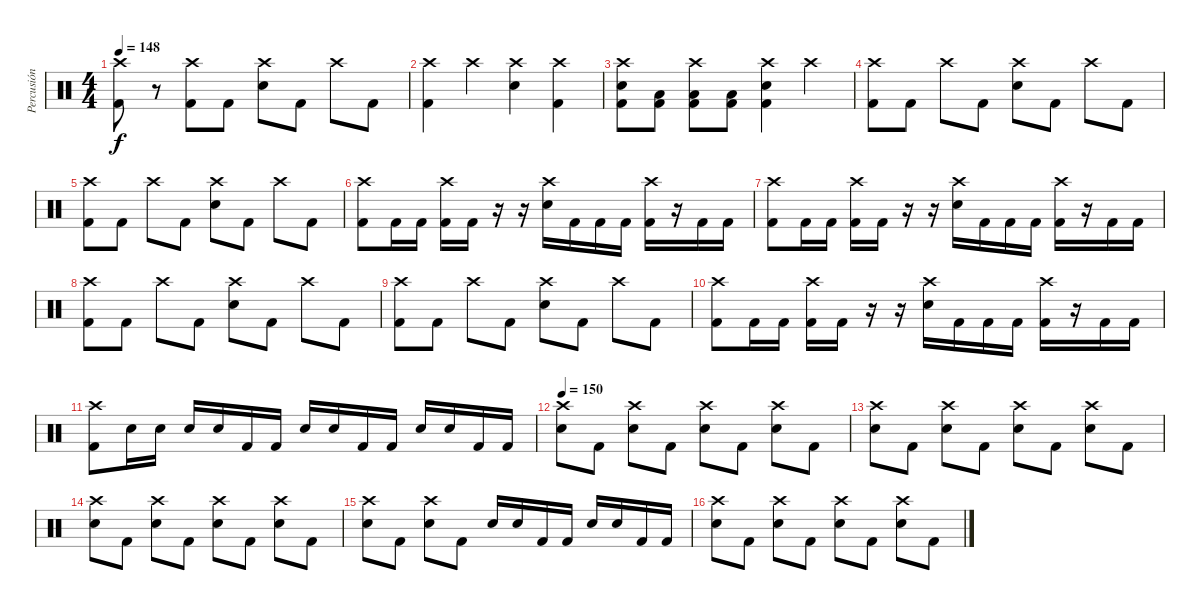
\track ("Percusión" "Percusión") {instrument percussion}
\staff {score}
\articulation defaults
\ts (4 4)
\tempo 148
\clef neutral
\ks c
("Crash high (hit)" "Kick (hit) 2").8{dy f} r.8 ("Crash high (hit)" "Kick (hit) 2").8 "Kick (hit) 2".8 ("Crash high (hit)" "Electric Snare (hit)").8 "Kick (hit) 2".8 "Crash high (hit)".8 "Kick (hit) 2".8 |
("Crash high (hit)" "Kick (hit) 2").4 "Crash high (hit)".4 ("Crash high (hit)" "Electric Snare (hit)").4 ("Crash high (hit)" "Kick (hit) 2").4 |
("Crash high (hit)" "Electric Snare (hit)" "Kick (hit) 2").8 ("Low Tom (hit)" "Kick (hit) 2").8 ("Crash high (hit)" "Low Tom (hit)" "Kick (hit) 2").8 ("Low Tom (hit)" "Kick (hit) 2").8 ("Crash high (hit)" "Electric Snare (hit)" "Kick (hit) 2").4 "Crash high (hit)".4 |
("Crash high (hit)" "Kick (hit) 2").8 "Kick (hit) 2".8 "Crash high (hit)".8 "Kick (hit) 2".8 ("Crash high (hit)" "Electric Snare (hit)").8 "Kick (hit) 2".8 "Crash high (hit)".8 "Kick (hit) 2".8 |
("Crash high (hit)" "Kick (hit) 2").8 "Kick (hit) 2".8 "Crash high (hit)".8 "Kick (hit) 2".8 ("Crash high (hit)" "Electric Snare (hit)").8 "Kick (hit) 2".8 "Crash high (hit)".8 "Kick (hit) 2".8 |
("Crash high (hit)" "Kick (hit) 2").8 "Kick (hit) 2".16 "Kick (hit) 2".16 ("Crash high (hit)" "Kick (hit) 2").16 "Kick (hit) 2".16 r.16 r.16 ("Crash high (hit)" "Electric Snare (hit)").16 "Kick (hit) 2".16 "Kick (hit) 2".16 "Kick (hit) 2".16 ("Crash high (hit)" "Kick (hit) 2").16 r.16 "Kick (hit) 2".16 "Kick (hit) 2".16 |
("Crash high (hit)" "Kick (hit) 2").8 "Kick (hit) 2".16 "Kick (hit) 2".16 ("Crash high (hit)" "Kick (hit) 2").16 "Kick (hit) 2".16 r.16 r.16 ("Crash high (hit)" "Electric Snare (hit)").16 "Kick (hit) 2".16 "Kick (hit) 2".16 "Kick (hit) 2".16 ("Crash high (hit)" "Kick (hit) 2").16 r.16 "Kick (hit) 2".16 "Kick (hit) 2".16 |
("Crash high (hit)" "Kick (hit) 2").8 "Kick (hit) 2".8 "Crash high (hit)".8 "Kick (hit) 2".8 ("Crash high (hit)" "Electric Snare (hit)").8 "Kick (hit) 2".8 "Crash high (hit)".8 "Kick (hit) 2".8 |
("Crash high (hit)" "Kick (hit) 2").8 "Kick (hit) 2".8 "Crash high (hit)".8 "Kick (hit) 2".8 ("Crash high (hit)" "Electric Snare (hit)").8 "Kick (hit) 2".8 "Crash high (hit)".8 "Kick (hit) 2".8 |
("Crash high (hit)" "Kick (hit) 2").8 "Kick (hit) 2".16 "Kick (hit) 2".16 ("Crash high (hit)" "Kick (hit) 2").16 "Kick (hit) 2".16 r.16 r.16 ("Crash high (hit)" "Electric Snare (hit)").16 "Kick (hit) 2".16 "Kick (hit) 2".16 "Kick (hit) 2".16 ("Crash high (hit)" "Kick (hit) 2").16 r.16 "Kick (hit) 2".16 "Kick (hit) 2".16 |
("Crash high (hit)" "Kick (hit) 2").8 "Electric Snare (hit)".16 "Electric Snare (hit)".16 "Electric Snare (hit)".16 "Electric Snare (hit)".16 "Kick (hit) 2".16 "Kick (hit) 2".16 "Electric Snare (hit)".16 "Electric Snare (hit)".16 "Kick (hit) 2".16 "Kick (hit) 2".16 "Electric Snare (hit)".16 "Electric Snare (hit)".16 "Kick (hit) 2".16 "Kick (hit) 2".16 |
\tempo 150
("Crash high (hit)" "Electric Snare (hit)").8 "Kick (hit) 2".8 ("Crash high (hit)" "Electric Snare (hit)").8 "Kick (hit) 2".8 ("Crash high (hit)" "Electric Snare (hit)").8 "Kick (hit) 2".8 ("Crash high (hit)" "Electric Snare (hit)").8 "Kick (hit) 2".8 |
("Crash high (hit)" "Electric Snare (hit)").8 "Kick (hit) 2".8 ("Crash high (hit)" "Electric Snare (hit)").8 "Kick (hit) 2".8 ("Crash high (hit)" "Electric Snare (hit)").8 "Kick (hit) 2".8 ("Crash high (hit)" "Electric Snare (hit)").8 "Kick (hit) 2".8 |
("Crash high (hit)" "Electric Snare (hit)").8 "Kick (hit) 2".8 ("Crash high (hit)" "Electric Snare (hit)").8 "Kick (hit) 2".8 ("Crash high (hit)" "Electric Snare (hit)").8 "Kick (hit) 2".8 ("Crash high (hit)" "Electric Snare (hit)").8 "Kick (hit) 2".8 |
("Crash high (hit)" "Electric Snare (hit)").8 "Kick (hit) 2".8 ("Crash high (hit)" "Electric Snare (hit)").8 "Kick (hit) 2".8 "Electric Snare (hit)".16 "Electric Snare (hit)".16 "Kick (hit) 2".16 "Kick (hit) 2".16 "Electric Snare (hit)".16 "Electric Snare (hit)".16 "Kick (hit) 2".16 "Kick (hit) 2".16 |
("Crash high (hit)" "Electric Snare (hit)").8 "Kick (hit) 2".8 ("Crash high (hit)" "Electric Snare (hit)").8 "Kick (hit) 2".8 ("Crash high (hit)" "Electric Snare (hit)").8 "Kick (hit) 2".8 ("Crash high (hit)" "Electric Snare (hit)").8 "Kick (hit) 2".8
